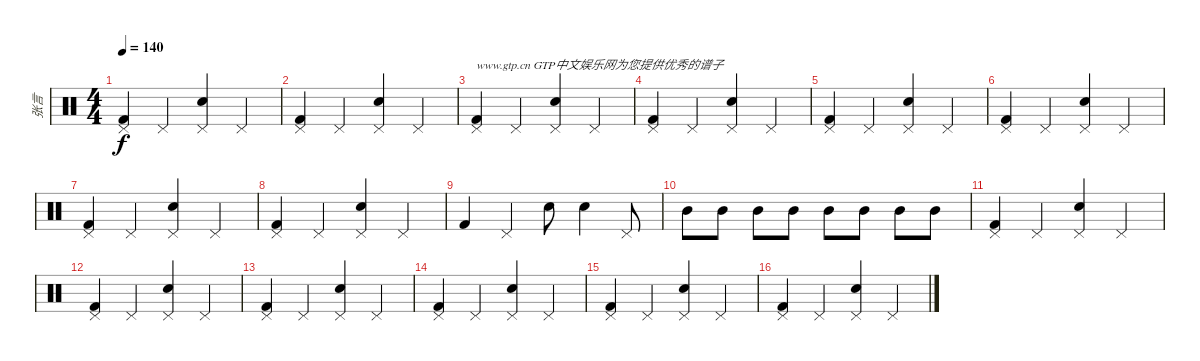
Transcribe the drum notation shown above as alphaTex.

\track ("张言" "张言") {instrument percussion}
\staff {score}
\articulation defaults
\ts (4 4)
\tempo 140
\clef neutral
\ks c
("Kick (hit) 2" "Pedal Hi-Hat (hit)").4{dy f} "Pedal Hi-Hat (hit)".4 ("Snare (hit) 2" "Pedal Hi-Hat (hit)").4 "Pedal Hi-Hat (hit)".4 |
("Kick (hit) 2" "Pedal Hi-Hat (hit)").4 "Pedal Hi-Hat (hit)".4 ("Snare (hit) 2" "Pedal Hi-Hat (hit)").4 "Pedal Hi-Hat (hit)".4 |
("Kick (hit) 2" "Pedal Hi-Hat (hit)").4{txt "www.gtp.cn GTP中文娱乐网为您提供优秀的谱子"} "Pedal Hi-Hat (hit)".4 ("Snare (hit) 2" "Pedal Hi-Hat (hit)").4 "Pedal Hi-Hat (hit)".4 |
("Kick (hit) 2" "Pedal Hi-Hat (hit)").4 "Pedal Hi-Hat (hit)".4 ("Snare (hit) 2" "Pedal Hi-Hat (hit)").4 "Pedal Hi-Hat (hit)".4 |
("Kick (hit) 2" "Pedal Hi-Hat (hit)").4 "Pedal Hi-Hat (hit)".4 ("Snare (hit) 2" "Pedal Hi-Hat (hit)").4 "Pedal Hi-Hat (hit)".4 |
("Kick (hit) 2" "Pedal Hi-Hat (hit)").4 "Pedal Hi-Hat (hit)".4 ("Snare (hit) 2" "Pedal Hi-Hat (hit)").4 "Pedal Hi-Hat (hit)".4 |
("Kick (hit) 2" "Pedal Hi-Hat (hit)").4 "Pedal Hi-Hat (hit)".4 ("Snare (hit) 2" "Pedal Hi-Hat (hit)").4 "Pedal Hi-Hat (hit)".4 |
("Kick (hit) 2" "Pedal Hi-Hat (hit)").4 "Pedal Hi-Hat (hit)".4 ("Snare (hit) 2" "Pedal Hi-Hat (hit)").4 "Pedal Hi-Hat (hit)".4 |
"Kick (hit) 2".4 "Pedal Hi-Hat (hit)".4 "Snare (hit) 2".8 "Snare (hit) 2".4 "Pedal Hi-Hat (hit)".8 |
"Mid Tom (hit)".8 "Mid Tom (hit)".8 "Mid Tom (hit)".8 "Mid Tom (hit)".8 "Mid Tom (hit)".8 "Mid Tom (hit)".8 "Mid Tom (hit)".8 "Mid Tom (hit)".8 |
("Kick (hit) 2" "Pedal Hi-Hat (hit)").4 "Pedal Hi-Hat (hit)".4 ("Snare (hit) 2" "Pedal Hi-Hat (hit)").4 "Pedal Hi-Hat (hit)".4 |
("Kick (hit) 2" "Pedal Hi-Hat (hit)").4 "Pedal Hi-Hat (hit)".4 ("Snare (hit) 2" "Pedal Hi-Hat (hit)").4 "Pedal Hi-Hat (hit)".4 |
("Kick (hit) 2" "Pedal Hi-Hat (hit)").4 "Pedal Hi-Hat (hit)".4 ("Snare (hit) 2" "Pedal Hi-Hat (hit)").4 "Pedal Hi-Hat (hit)".4 |
("Kick (hit) 2" "Pedal Hi-Hat (hit)").4 "Pedal Hi-Hat (hit)".4 ("Snare (hit) 2" "Pedal Hi-Hat (hit)").4 "Pedal Hi-Hat (hit)".4 |
("Kick (hit) 2" "Pedal Hi-Hat (hit)").4 "Pedal Hi-Hat (hit)".4 ("Snare (hit) 2" "Pedal Hi-Hat (hit)").4 "Pedal Hi-Hat (hit)".4 |
("Kick (hit) 2" "Pedal Hi-Hat (hit)").4 "Pedal Hi-Hat (hit)".4 ("Snare (hit) 2" "Pedal Hi-Hat (hit)").4 "Pedal Hi-Hat (hit)".4
